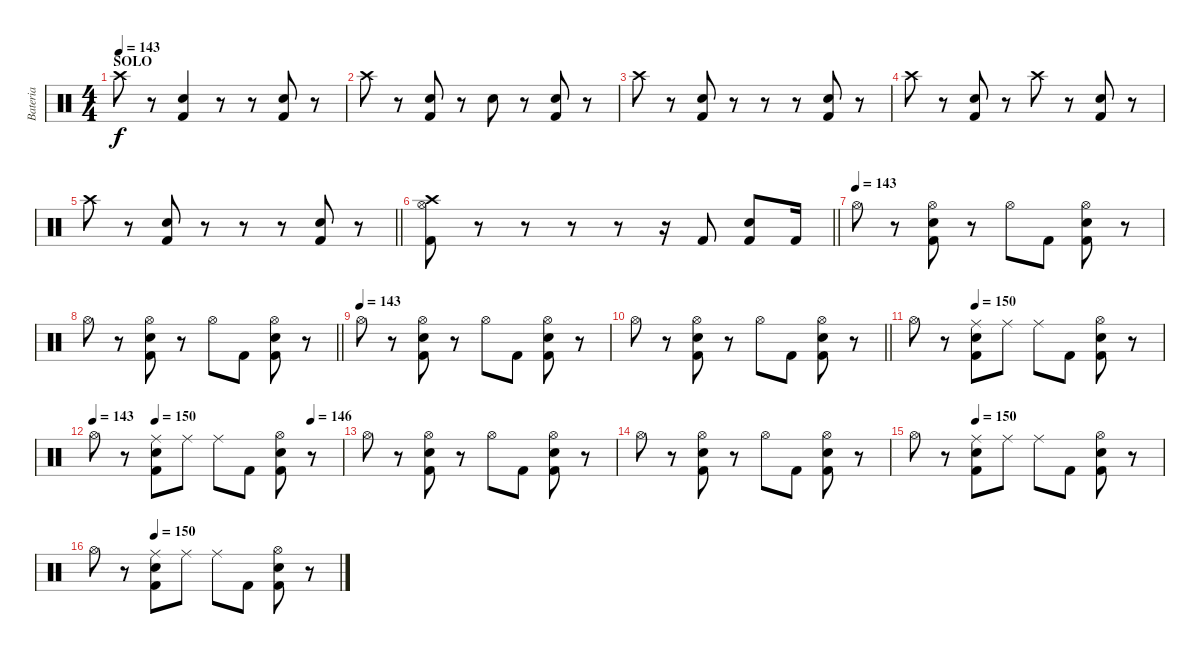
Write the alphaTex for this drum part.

\track ("Bateria" "Bateria") {instrument percussion}
\staff {score}
\articulation defaults
\ts (4 4)
\section ("" "SOLO")
\tempo 143
\clef neutral
\ks c "Crash high (hit)".8{dy f volume 16}
r.8 ("Electric Snare (hit)" "Kick (hit) 2").4 r.8 r.8 ("Electric Snare (hit)" "Kick (hit) 2").8 r.8 |
"Crash high (hit)".8 r.8 ("Electric Snare (hit)" "Kick (hit) 2").8 r.8 "Snare (hit)"{x}.8 r.8 ("Electric Snare (hit)" "Kick (hit) 2").8 r.8 |
"Crash high (hit)".8 r.8 ("Electric Snare (hit)" "Kick (hit) 2").8 r.8 r.8 r.8 ("Electric Snare (hit)" "Kick (hit) 2").8 r.8 |
"Crash high (hit)".8 r.8 ("Electric Snare (hit)" "Kick (hit) 2").8 r.8 "Crash high (hit)".8 r.8 ("Electric Snare (hit)" "Kick (hit) 2").8 r.8 |
\barLineRight lightlight "Crash high (hit)".8
r.8 ("Electric Snare (hit)" "Kick (hit) 2").8 r.8 r.8 r.8 ("Electric Snare (hit)" "Kick (hit) 2").8 r.8 |
\barLineRight lightlight
("Crash high (hit)" "Hi-Hat (open)" "Kick (hit) 2").8 r.8 r.8 r.8 r.8 r.16 "Kick (hit) 2".8 ("Electric Snare (hit)" "Kick (hit) 2").8 "Kick (hit) 2".16 |
\tempo (143)
"Hi-Hat (open)".8 r.8 ("Hi-Hat (open)" "Electric Snare (hit)" "Kick (hit) 2").8 r.8 "Hi-Hat (open)".8 "Kick (hit) 2".8 ("Hi-Hat (open)" "Electric Snare (hit)" "Kick (hit) 2").8 r.8 |
\barLineRight lightlight "Hi-Hat (open)".8
r.8 ("Hi-Hat (open)" "Electric Snare (hit)" "Kick (hit) 2").8 r.8 "Hi-Hat (open)".8 "Kick (hit) 2".8 ("Hi-Hat (open)" "Electric Snare (hit)" "Kick (hit) 2").8 r.8 |
\tempo (143)
"Hi-Hat (open)".8 r.8 ("Hi-Hat (open)" "Electric Snare (hit)" "Kick (hit) 2").8 r.8 "Hi-Hat (open)".8 "Kick (hit) 2".8 ("Hi-Hat (open)" "Electric Snare (hit)" "Kick (hit) 2").8 r.8 |
\barLineRight lightlight "Hi-Hat (open)".8
r.8 ("Hi-Hat (open)" "Electric Snare (hit)" "Kick (hit) 2").8 r.8 "Hi-Hat (open)".8 "Kick (hit) 2".8 ("Hi-Hat (open)" "Electric Snare (hit)" "Kick (hit) 2").8 r.8 |
\tempo (150 0.25)
"Hi-Hat (open)".8 r.8 ("Ride (middle)" "Electric Snare (hit)" "Kick (hit) 2").8 "Ride (middle)".8 "Ride (middle)".8 "Kick (hit) 2".8 ("Hi-Hat (open)" "Electric Snare (hit)" "Kick (hit) 2").8 r.8 |
\tempo 143
\tempo (150 0.25)
\tempo (146 0.875)
"Hi-Hat (open)".8 r.8 ("Ride (middle)" "Electric Snare (hit)" "Kick (hit) 2").8 "Ride (middle)".8 "Ride (middle)".8 "Kick (hit) 2".8 ("Hi-Hat (open)" "Electric Snare (hit)" "Kick (hit) 2").8 r.8 |
"Hi-Hat (open)".8 r.8 ("Hi-Hat (open)" "Electric Snare (hit)" "Kick (hit) 2").8 r.8 "Hi-Hat (open)".8 "Kick (hit) 2".8 ("Hi-Hat (open)" "Electric Snare (hit)" "Kick (hit) 2").8 r.8 |
"Hi-Hat (open)".8 r.8 ("Hi-Hat (open)" "Electric Snare (hit)" "Kick (hit) 2").8 r.8 "Hi-Hat (open)".8 "Kick (hit) 2".8 ("Hi-Hat (open)" "Electric Snare (hit)" "Kick (hit) 2").8 r.8 |
\tempo (150 0.25)
"Hi-Hat (open)".8 r.8 ("Ride (middle)" "Electric Snare (hit)" "Kick (hit) 2").8 "Ride (middle)".8 "Ride (middle)".8 "Kick (hit) 2".8 ("Hi-Hat (open)" "Electric Snare (hit)" "Kick (hit) 2").8 r.8 |
\tempo (150 0.25)
"Hi-Hat (open)".8 r.8 ("Ride (middle)" "Electric Snare (hit)" "Kick (hit) 2").8 "Ride (middle)".8 "Ride (middle)".8 "Kick (hit) 2".8 ("Hi-Hat (open)" "Electric Snare (hit)" "Kick (hit) 2").8 r.8
